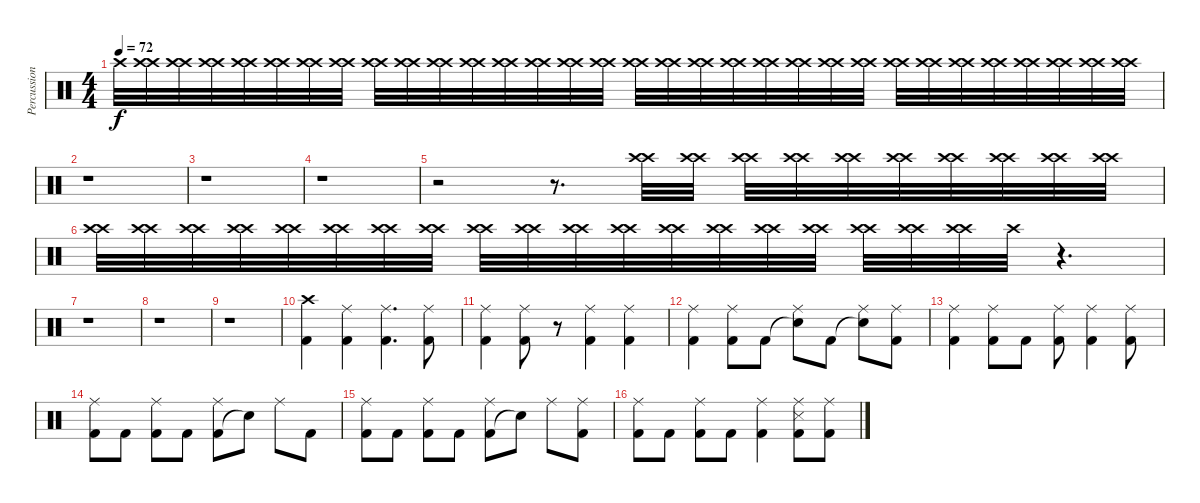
\track ("Percussion" "Percussion") {instrument percussion}
\staff {score}
\articulation defaults
\ts (4 4)
\tempo 72
\clef neutral
\ks c "Crash high (hit)".32{dy f volume 8}
("Crash high (hit)" "Crash high (hit)").32 ("Crash high (hit)" "Crash high (hit)").32{volume 10} ("Crash high (hit)" "Crash high (hit)").32 ("Crash high (hit)" "Crash high (hit)").32{volume 11} ("Crash high (hit)" "Crash high (hit)").32 ("Crash high (hit)" "Crash high (hit)").32{volume 12} ("Crash high (hit)" "Crash high (hit)").32 ("Crash high (hit)" "Crash high (hit)").32{volume 13} ("Crash high (hit)" "Crash high (hit)").32 ("Crash high (hit)" "Crash high (hit)").32{volume 14} ("Crash high (hit)" "Crash high (hit)").32 ("Crash high (hit)" "Crash high (hit)").32{volume 14} ("Crash high (hit)" "Crash high (hit)").32 ("Crash high (hit)" "Crash high (hit)").32{volume 15} ("Crash high (hit)" "Crash high (hit)").32 ("Crash high (hit)" "Crash high (hit)").32{volume 12} ("Crash high (hit)" "Crash high (hit)").32 ("Crash high (hit)" "Crash high (hit)").32 ("Crash high (hit)" "Crash high (hit)").32 ("Crash high (hit)" "Crash high (hit)").32 ("Crash high (hit)" "Crash high (hit)").32 ("Crash high (hit)" "Crash high (hit)").32 ("Crash high (hit)" "Crash high (hit)").32 ("Crash high (hit)" "Crash high (hit)").32 ("Crash high (hit)" "Crash high (hit)").32 ("Crash high (hit)" "Crash high (hit)").32 ("Crash high (hit)" "Crash high (hit)").32 ("Crash high (hit)" "Crash high (hit)").32 ("Crash high (hit)" "Crash high (hit)").32 ("Crash high (hit)" "Crash high (hit)").32 ("Crash high (hit)" "Crash high (hit)").32 |
r.1 |
r.1 |
r.1 |
r.2 r.8{d} ("Crash high (hit)" "Crash high (hit)").32 ("Crash high (hit)" "Crash high (hit)").32 ("Crash high (hit)" "Crash high (hit)").32 ("Crash high (hit)" "Crash high (hit)").32 ("Crash high (hit)" "Crash high (hit)").32 ("Crash high (hit)" "Crash high (hit)").32 ("Crash high (hit)" "Crash high (hit)").32 ("Crash high (hit)" "Crash high (hit)").32 ("Crash high (hit)" "Crash high (hit)").32 ("Crash high (hit)" "Crash high (hit)").32 |
("Crash high (hit)" "Crash high (hit)").32 ("Crash high (hit)" "Crash high (hit)").32 ("Crash high (hit)" "Crash high (hit)").32 ("Crash high (hit)" "Crash high (hit)").32 ("Crash high (hit)" "Crash high (hit)").32 ("Crash high (hit)" "Crash high (hit)").32 ("Crash high (hit)" "Crash high (hit)").32 ("Crash high (hit)" "Crash high (hit)").32 ("Crash high (hit)" "Crash high (hit)").32 ("Crash high (hit)" "Crash high (hit)").32 ("Crash high (hit)" "Crash high (hit)").32 ("Crash high (hit)" "Crash high (hit)").32 ("Crash high (hit)" "Crash high (hit)").32 ("Crash high (hit)" "Crash high (hit)").32 ("Crash high (hit)" "Crash high (hit)").32 ("Crash high (hit)" "Crash high (hit)").32 ("Crash high (hit)" "Crash high (hit)").32 ("Crash high (hit)" "Crash high (hit)").32 ("Crash high (hit)" "Crash high (hit)").32 "Crash high (hit)".32 r.4{d} |
r.1 |
r.1 |
r.1 |
("Kick (hit) 2" "Crash high (hit)").4 ("Kick (hit) 2" "Ride (middle)").4 ("Kick (hit) 2" "Ride (middle)").4{d} ("Kick (hit) 2" "Ride (middle)").8 |
("Kick (hit) 2" "Ride (middle)").4 ("Kick (hit) 2" "Ride (middle)").8 r.8 ("Kick (hit) 2" "Ride (middle)").4 ("Kick (hit) 2" "Ride (middle)").4 |
("Kick (hit) 2" "Ride (middle)").4 ("Kick (hit) 2" "Ride (middle)").8 "Kick (hit) 2".8 ("Snare (hit)"{t} "Ride (middle)").8 "Kick (hit) 2".8 ("Snare (hit)"{t} "Ride (middle)").8 ("Kick (hit) 2" "Ride (middle)").8 |
("Kick (hit) 2" "Ride (middle)").4 ("Kick (hit) 2" "Ride (middle)").8 "Kick (hit) 2".8 ("Kick (hit) 2" "Ride (middle)").8 ("Kick (hit) 2" "Ride (middle)").4 ("Kick (hit) 2" "Ride (middle)").8 |
("Kick (hit) 2" "Ride (middle)").8 "Kick (hit) 2".8 ("Kick (hit) 2" "Ride (middle)").8 "Kick (hit) 2".8 ("Kick (hit) 2" "Ride (middle)").8 "Snare (hit)"{t}.8 "Ride (middle)".8 "Kick (hit) 2".8 |
("Kick (hit) 2" "Ride (middle)").8 "Kick (hit) 2".8 ("Kick (hit) 2" "Ride (middle)").8 "Kick (hit) 2".8 ("Kick (hit) 2" "Ride (middle)").8 "Snare (hit)"{t}.8 "Ride (middle)".8 ("Kick (hit) 2" "Ride (middle)").8 |
("Kick (hit) 2" "Ride (middle)").8 "Kick (hit) 2".8 ("Kick (hit) 2" "Ride (middle)").8 "Kick (hit) 2".8 ("Kick (hit) 2" "Ride (middle)").4 ("Kick (hit) 2" "Ride (middle)" "Snare (side stick) 3").8 ("Kick (hit) 2" "Ride (middle)").8
